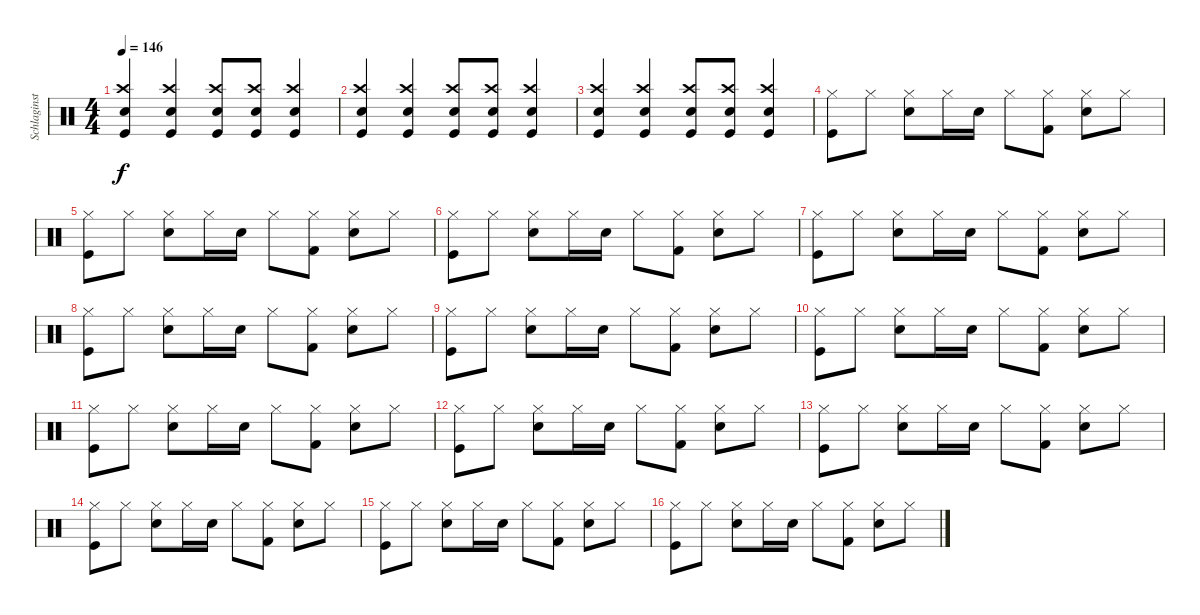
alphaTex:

\track ("Schlaginstrumente - Auswahl" "Schlaginst") {instrument percussion}
\staff {score}
\articulation defaults
\ts (4 4)
\tempo 146
\clef neutral
\ks c
("Snare (hit) 2" "Crash high (hit)" "Kick (hit)").4{dy f} ("Snare (hit) 2" "Crash high (hit)" "Kick (hit)").4 ("Snare (hit) 2" "Crash high (hit)" "Kick (hit)").8 ("Snare (hit) 2" "Crash high (hit)" "Kick (hit)").8 ("Snare (hit) 2" "Crash high (hit)" "Kick (hit)").4 |
("Snare (hit) 2" "Crash high (hit)" "Kick (hit)").4 ("Snare (hit) 2" "Crash high (hit)" "Kick (hit)").4 ("Snare (hit) 2" "Crash high (hit)" "Kick (hit)").8 ("Snare (hit) 2" "Crash high (hit)" "Kick (hit)").8 ("Snare (hit) 2" "Crash high (hit)" "Kick (hit)").4 |
("Snare (hit) 2" "Crash high (hit)" "Kick (hit)").4 ("Snare (hit) 2" "Crash high (hit)" "Kick (hit)").4 ("Snare (hit) 2" "Crash high (hit)" "Kick (hit)").8 ("Snare (hit) 2" "Crash high (hit)" "Kick (hit)").8 ("Snare (hit) 2" "Crash high (hit)" "Kick (hit)").4 |
("Hi-Hat (closed)" "Kick (hit)").8 "Hi-Hat (closed)".8 ("Hi-Hat (closed)" "Snare (hit) 2").8 "Hi-Hat (closed)".16 "Snare (hit) 2".16 "Hi-Hat (closed)".8 ("Hi-Hat (closed)" "Kick (hit) 2").8 ("Hi-Hat (closed)" "Snare (hit) 2").8 "Hi-Hat (closed)".8 |
("Hi-Hat (closed)" "Kick (hit)").8 "Hi-Hat (closed)".8 ("Hi-Hat (closed)" "Snare (hit) 2").8 "Hi-Hat (closed)".16 "Snare (hit) 2".16 "Hi-Hat (closed)".8 ("Hi-Hat (closed)" "Kick (hit) 2").8 ("Hi-Hat (closed)" "Snare (hit) 2").8 "Hi-Hat (closed)".8 |
("Hi-Hat (closed)" "Kick (hit)").8 "Hi-Hat (closed)".8 ("Hi-Hat (closed)" "Snare (hit) 2").8 "Hi-Hat (closed)".16 "Snare (hit) 2".16 "Hi-Hat (closed)".8 ("Hi-Hat (closed)" "Kick (hit) 2").8 ("Hi-Hat (closed)" "Snare (hit) 2").8 "Hi-Hat (closed)".8 |
("Hi-Hat (closed)" "Kick (hit)").8 "Hi-Hat (closed)".8 ("Hi-Hat (closed)" "Snare (hit) 2").8 "Hi-Hat (closed)".16 "Snare (hit) 2".16 "Hi-Hat (closed)".8 ("Hi-Hat (closed)" "Kick (hit) 2").8 ("Hi-Hat (closed)" "Snare (hit) 2").8 "Hi-Hat (closed)".8 |
("Hi-Hat (closed)" "Kick (hit)").8 "Hi-Hat (closed)".8 ("Hi-Hat (closed)" "Snare (hit) 2").8 "Hi-Hat (closed)".16 "Snare (hit) 2".16 "Hi-Hat (closed)".8 ("Hi-Hat (closed)" "Kick (hit) 2").8 ("Hi-Hat (closed)" "Snare (hit) 2").8 "Hi-Hat (closed)".8 |
("Hi-Hat (closed)" "Kick (hit)").8 "Hi-Hat (closed)".8 ("Hi-Hat (closed)" "Snare (hit) 2").8 "Hi-Hat (closed)".16 "Snare (hit) 2".16 "Hi-Hat (closed)".8 ("Hi-Hat (closed)" "Kick (hit) 2").8 ("Hi-Hat (closed)" "Snare (hit) 2").8 "Hi-Hat (closed)".8 |
("Hi-Hat (closed)" "Kick (hit)").8 "Hi-Hat (closed)".8 ("Hi-Hat (closed)" "Snare (hit) 2").8 "Hi-Hat (closed)".16 "Snare (hit) 2".16 "Hi-Hat (closed)".8 ("Hi-Hat (closed)" "Kick (hit) 2").8 ("Hi-Hat (closed)" "Snare (hit) 2").8 "Hi-Hat (closed)".8 |
("Hi-Hat (closed)" "Kick (hit)").8 "Hi-Hat (closed)".8 ("Hi-Hat (closed)" "Snare (hit) 2").8 "Hi-Hat (closed)".16 "Snare (hit) 2".16 "Hi-Hat (closed)".8 ("Hi-Hat (closed)" "Kick (hit) 2").8 ("Hi-Hat (closed)" "Snare (hit) 2").8 "Hi-Hat (closed)".8 |
("Hi-Hat (closed)" "Kick (hit)").8 "Hi-Hat (closed)".8 ("Hi-Hat (closed)" "Snare (hit) 2").8 "Hi-Hat (closed)".16 "Snare (hit) 2".16 "Hi-Hat (closed)".8 ("Hi-Hat (closed)" "Kick (hit) 2").8 ("Hi-Hat (closed)" "Snare (hit) 2").8 "Hi-Hat (closed)".8 |
("Hi-Hat (closed)" "Kick (hit)").8 "Hi-Hat (closed)".8 ("Hi-Hat (closed)" "Snare (hit) 2").8 "Hi-Hat (closed)".16 "Snare (hit) 2".16 "Hi-Hat (closed)".8 ("Hi-Hat (closed)" "Kick (hit) 2").8 ("Hi-Hat (closed)" "Snare (hit) 2").8 "Hi-Hat (closed)".8 |
("Hi-Hat (closed)" "Kick (hit)").8 "Hi-Hat (closed)".8 ("Hi-Hat (closed)" "Snare (hit) 2").8 "Hi-Hat (closed)".16 "Snare (hit) 2".16 "Hi-Hat (closed)".8 ("Hi-Hat (closed)" "Kick (hit) 2").8 ("Hi-Hat (closed)" "Snare (hit) 2").8 "Hi-Hat (closed)".8 |
("Hi-Hat (closed)" "Kick (hit)").8 "Hi-Hat (closed)".8 ("Hi-Hat (closed)" "Snare (hit) 2").8 "Hi-Hat (closed)".16 "Snare (hit) 2".16 "Hi-Hat (closed)".8 ("Hi-Hat (closed)" "Kick (hit) 2").8 ("Hi-Hat (closed)" "Snare (hit) 2").8 "Hi-Hat (closed)".8 |
("Hi-Hat (closed)" "Kick (hit)").8 "Hi-Hat (closed)".8 ("Hi-Hat (closed)" "Snare (hit) 2").8 "Hi-Hat (closed)".16 "Snare (hit) 2".16 "Hi-Hat (closed)".8 ("Hi-Hat (closed)" "Kick (hit) 2").8 ("Hi-Hat (closed)" "Snare (hit) 2").8 "Hi-Hat (closed)".8
